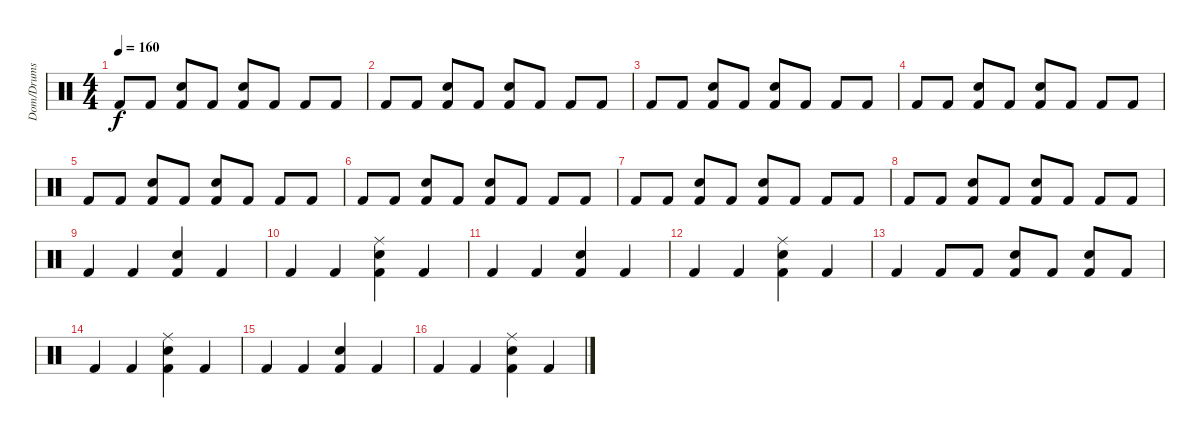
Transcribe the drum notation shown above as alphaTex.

\track ("Dom/Drums" "Dom/Drums") {instrument percussion}
\staff {score}
\articulation defaults
\ts (4 4)
\tempo 160
\clef neutral
\ks c "Kick (hit) 2".8{dy f} "Kick (hit) 2".8
("Electric Snare (hit)" "Kick (hit) 2").8 "Kick (hit) 2".8 ("Electric Snare (hit)" "Kick (hit) 2").8 "Kick (hit) 2".8 "Kick (hit) 2".8 "Kick (hit) 2".8 |
"Kick (hit) 2".8 "Kick (hit) 2".8 ("Electric Snare (hit)" "Kick (hit) 2").8 "Kick (hit) 2".8 ("Electric Snare (hit)" "Kick (hit) 2").8 "Kick (hit) 2".8 "Kick (hit) 2".8 "Kick (hit) 2".8 |
"Kick (hit) 2".8 "Kick (hit) 2".8 ("Electric Snare (hit)" "Kick (hit) 2").8 "Kick (hit) 2".8 ("Electric Snare (hit)" "Kick (hit) 2").8 "Kick (hit) 2".8 "Kick (hit) 2".8 "Kick (hit) 2".8 |
"Kick (hit) 2".8 "Kick (hit) 2".8 ("Electric Snare (hit)" "Kick (hit) 2").8 "Kick (hit) 2".8 ("Electric Snare (hit)" "Kick (hit) 2").8 "Kick (hit) 2".8 "Kick (hit) 2".8 "Kick (hit) 2".8 |
"Kick (hit) 2".8 "Kick (hit) 2".8 ("Electric Snare (hit)" "Kick (hit) 2").8 "Kick (hit) 2".8 ("Electric Snare (hit)" "Kick (hit) 2").8 "Kick (hit) 2".8 "Kick (hit) 2".8 "Kick (hit) 2".8 |
"Kick (hit) 2".8 "Kick (hit) 2".8 ("Electric Snare (hit)" "Kick (hit) 2").8 "Kick (hit) 2".8 ("Electric Snare (hit)" "Kick (hit) 2").8 "Kick (hit) 2".8 "Kick (hit) 2".8 "Kick (hit) 2".8 |
"Kick (hit) 2".8 "Kick (hit) 2".8 ("Electric Snare (hit)" "Kick (hit) 2").8 "Kick (hit) 2".8 ("Electric Snare (hit)" "Kick (hit) 2").8 "Kick (hit) 2".8 "Kick (hit) 2".8 "Kick (hit) 2".8 |
"Kick (hit) 2".8 "Kick (hit) 2".8 ("Electric Snare (hit)" "Kick (hit) 2").8 "Kick (hit) 2".8 ("Electric Snare (hit)" "Kick (hit) 2").8 "Kick (hit) 2".8 "Kick (hit) 2".8 "Kick (hit) 2".8 |
"Kick (hit) 2".4 "Kick (hit) 2".4 ("Electric Snare (hit)" "Kick (hit) 2").4 "Kick (hit) 2".4 |
"Kick (hit) 2".4 "Kick (hit) 2".4 ("Electric Snare (hit)" "Ride (middle)" "Kick (hit) 2").4 "Kick (hit) 2".4 |
"Kick (hit) 2".4 "Kick (hit) 2".4 ("Electric Snare (hit)" "Kick (hit) 2").4 "Kick (hit) 2".4 |
"Kick (hit) 2".4 "Kick (hit) 2".4 ("Electric Snare (hit)" "Ride (middle)" "Kick (hit) 2").4 "Kick (hit) 2".4 |
"Kick (hit) 2".4 "Kick (hit) 2".8 "Kick (hit) 2".8 ("Electric Snare (hit)" "Kick (hit) 2").8 "Kick (hit) 2".8 ("Electric Snare (hit)" "Kick (hit) 2").8 "Kick (hit) 2".8 |
"Kick (hit) 2".4 "Kick (hit) 2".4 ("Electric Snare (hit)" "Ride (middle)" "Kick (hit) 2").4 "Kick (hit) 2".4 |
"Kick (hit) 2".4 "Kick (hit) 2".4 ("Electric Snare (hit)" "Kick (hit) 2").4 "Kick (hit) 2".4 |
"Kick (hit) 2".4 "Kick (hit) 2".4 ("Electric Snare (hit)" "Ride (middle)" "Kick (hit) 2").4 "Kick (hit) 2".4
